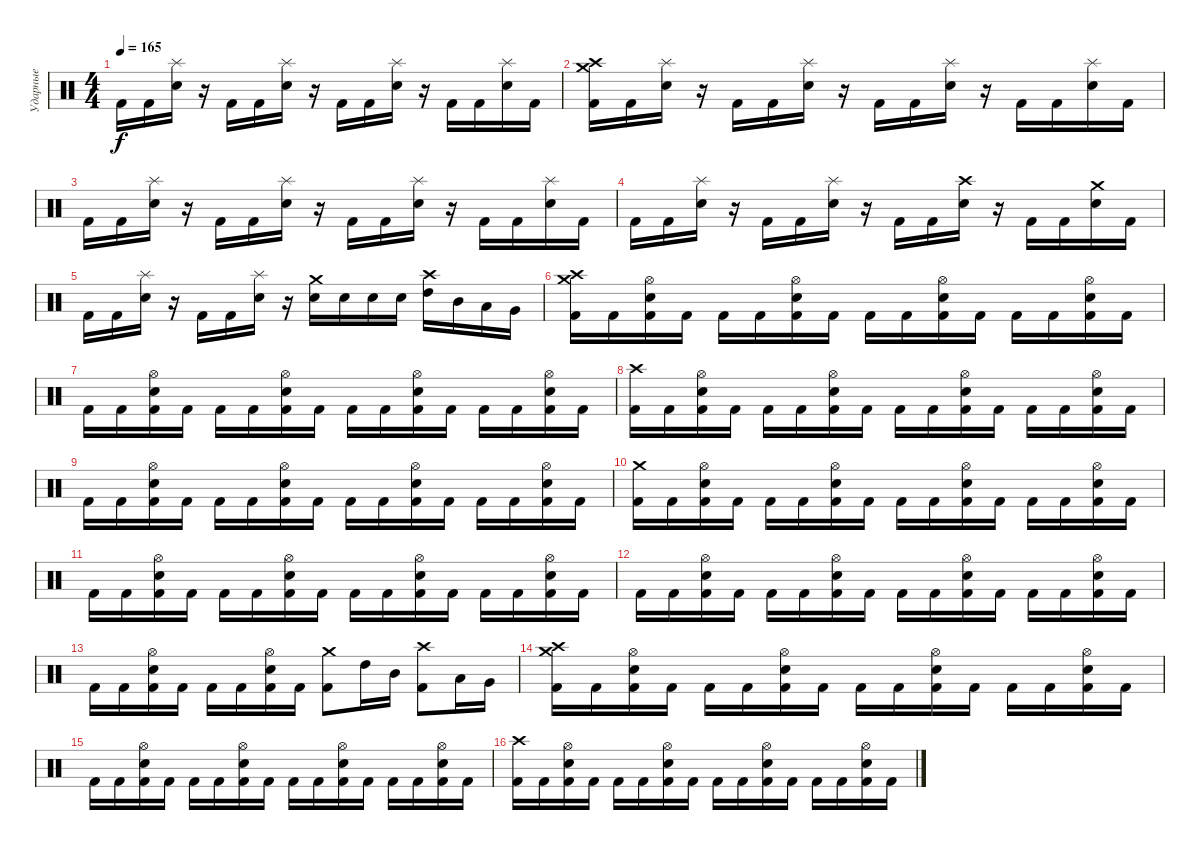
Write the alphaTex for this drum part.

\track ("Ударные" "Ударные") {instrument percussion}
\staff {score}
\articulation defaults
\ts (4 4)
\tempo 165
\clef neutral
\ks c "Kick (hit) 2".16{dy f} "Kick (hit) 2".16
("Splash (hit)" "Electric Snare (hit)").16 r.16 "Kick (hit) 2".16 "Kick (hit) 2".16 ("Splash (hit)" "Electric Snare (hit)").16 r.16 "Kick (hit) 2".16 "Kick (hit) 2".16 ("Splash (hit)" "Electric Snare (hit)").16 r.16 "Kick (hit) 2".16 "Kick (hit) 2".16 ("Splash (hit)" "Electric Snare (hit)").16 "Kick (hit) 2".16 |
("Crash medium (hit)" "Crash high (hit)" "Kick (hit) 2").16 "Kick (hit) 2".16 ("Splash (hit)" "Electric Snare (hit)").16 r.16 "Kick (hit) 2".16 "Kick (hit) 2".16 ("Splash (hit)" "Electric Snare (hit)").16 r.16 "Kick (hit) 2".16 "Kick (hit) 2".16 ("Splash (hit)" "Electric Snare (hit)").16 r.16 "Kick (hit) 2".16 "Kick (hit) 2".16 ("Splash (hit)" "Electric Snare (hit)").16 "Kick (hit) 2".16 |
"Kick (hit) 2".16 "Kick (hit) 2".16 ("Splash (hit)" "Electric Snare (hit)").16 r.16 "Kick (hit) 2".16 "Kick (hit) 2".16 ("Splash (hit)" "Electric Snare (hit)").16 r.16 "Kick (hit) 2".16 "Kick (hit) 2".16 ("Splash (hit)" "Electric Snare (hit)").16 r.16 "Kick (hit) 2".16 "Kick (hit) 2".16 ("Splash (hit)" "Electric Snare (hit)").16 "Kick (hit) 2".16 |
"Kick (hit) 2".16 "Kick (hit) 2".16 ("Splash (hit)" "Electric Snare (hit)").16 r.16 "Kick (hit) 2".16 "Kick (hit) 2".16 ("Splash (hit)" "Electric Snare (hit)").16 r.16 "Kick (hit) 2".16 "Kick (hit) 2".16 ("Crash high (hit)" "Electric Snare (hit)").16 r.16 "Kick (hit) 2".16 "Kick (hit) 2".16 ("Crash medium (hit)" "Electric Snare (hit)").16 "Kick (hit) 2".16 |
"Kick (hit) 2".16 "Kick (hit) 2".16 ("Splash (hit)" "Electric Snare (hit)").16 r.16 "Kick (hit) 2".16 "Kick (hit) 2".16 ("Splash (hit)" "Electric Snare (hit)").16 r.16 ("Crash medium (hit)" "Electric Snare (hit)").16 "Electric Snare (hit)".16 "Electric Snare (hit)".16 "Electric Snare (hit)".16 ("Crash high (hit)" "High Tom (hit)").16 "Mid Tom (hit)".16 "Low Tom (hit)".16 "Very Low Tom (hit)".16 |
("Crash medium (hit)" "Crash high (hit)" "Kick (hit) 2").16 "Kick (hit) 2".16 ("Hi-Hat (open)" "Electric Snare (hit)" "Kick (hit) 2").16 "Kick (hit) 2".16 "Kick (hit) 2".16 "Kick (hit) 2".16 ("Hi-Hat (open)" "Electric Snare (hit)" "Kick (hit) 2").16 "Kick (hit) 2".16 "Kick (hit) 2".16 "Kick (hit) 2".16 ("Hi-Hat (open)" "Electric Snare (hit)" "Kick (hit) 2").16 "Kick (hit) 2".16 "Kick (hit) 2".16 "Kick (hit) 2".16 ("Hi-Hat (open)" "Electric Snare (hit)" "Kick (hit) 2").16 "Kick (hit) 2".16 |
"Kick (hit) 2".16 "Kick (hit) 2".16 ("Hi-Hat (open)" "Electric Snare (hit)" "Kick (hit) 2").16 "Kick (hit) 2".16 "Kick (hit) 2".16 "Kick (hit) 2".16 ("Hi-Hat (open)" "Electric Snare (hit)" "Kick (hit) 2").16 "Kick (hit) 2".16 "Kick (hit) 2".16 "Kick (hit) 2".16 ("Hi-Hat (open)" "Electric Snare (hit)" "Kick (hit) 2").16 "Kick (hit) 2".16 "Kick (hit) 2".16 "Kick (hit) 2".16 ("Hi-Hat (open)" "Electric Snare (hit)" "Kick (hit) 2").16 "Kick (hit) 2".16 |
("Crash high (hit)" "Kick (hit) 2").16 "Kick (hit) 2".16 ("Hi-Hat (open)" "Electric Snare (hit)" "Kick (hit) 2").16 "Kick (hit) 2".16 "Kick (hit) 2".16 "Kick (hit) 2".16 ("Hi-Hat (open)" "Electric Snare (hit)" "Kick (hit) 2").16 "Kick (hit) 2".16 "Kick (hit) 2".16 "Kick (hit) 2".16 ("Hi-Hat (open)" "Electric Snare (hit)" "Kick (hit) 2").16 "Kick (hit) 2".16 "Kick (hit) 2".16 "Kick (hit) 2".16 ("Hi-Hat (open)" "Electric Snare (hit)" "Kick (hit) 2").16 "Kick (hit) 2".16 |
"Kick (hit) 2".16 "Kick (hit) 2".16 ("Hi-Hat (open)" "Electric Snare (hit)" "Kick (hit) 2").16 "Kick (hit) 2".16 "Kick (hit) 2".16 "Kick (hit) 2".16 ("Hi-Hat (open)" "Electric Snare (hit)" "Kick (hit) 2").16 "Kick (hit) 2".16 "Kick (hit) 2".16 "Kick (hit) 2".16 ("Hi-Hat (open)" "Electric Snare (hit)" "Kick (hit) 2").16 "Kick (hit) 2".16 "Kick (hit) 2".16 "Kick (hit) 2".16 ("Hi-Hat (open)" "Electric Snare (hit)" "Kick (hit) 2").16 "Kick (hit) 2".16 |
("Crash medium (hit)" "Kick (hit) 2").16 "Kick (hit) 2".16 ("Hi-Hat (open)" "Electric Snare (hit)" "Kick (hit) 2").16 "Kick (hit) 2".16 "Kick (hit) 2".16 "Kick (hit) 2".16 ("Hi-Hat (open)" "Electric Snare (hit)" "Kick (hit) 2").16 "Kick (hit) 2".16 "Kick (hit) 2".16 "Kick (hit) 2".16 ("Hi-Hat (open)" "Electric Snare (hit)" "Kick (hit) 2").16 "Kick (hit) 2".16 "Kick (hit) 2".16 "Kick (hit) 2".16 ("Hi-Hat (open)" "Electric Snare (hit)" "Kick (hit) 2").16 "Kick (hit) 2".16 |
"Kick (hit) 2".16 "Kick (hit) 2".16 ("Hi-Hat (open)" "Electric Snare (hit)" "Kick (hit) 2").16 "Kick (hit) 2".16 "Kick (hit) 2".16 "Kick (hit) 2".16 ("Hi-Hat (open)" "Electric Snare (hit)" "Kick (hit) 2").16 "Kick (hit) 2".16 "Kick (hit) 2".16 "Kick (hit) 2".16 ("Hi-Hat (open)" "Electric Snare (hit)" "Kick (hit) 2").16 "Kick (hit) 2".16 "Kick (hit) 2".16 "Kick (hit) 2".16 ("Hi-Hat (open)" "Electric Snare (hit)" "Kick (hit) 2").16 "Kick (hit) 2".16 |
"Kick (hit) 2".16 "Kick (hit) 2".16 ("Hi-Hat (open)" "Electric Snare (hit)" "Kick (hit) 2").16 "Kick (hit) 2".16 "Kick (hit) 2".16 "Kick (hit) 2".16 ("Hi-Hat (open)" "Electric Snare (hit)" "Kick (hit) 2").16 "Kick (hit) 2".16 "Kick (hit) 2".16 "Kick (hit) 2".16 ("Hi-Hat (open)" "Electric Snare (hit)" "Kick (hit) 2").16 "Kick (hit) 2".16 "Kick (hit) 2".16 "Kick (hit) 2".16 ("Hi-Hat (open)" "Electric Snare (hit)" "Kick (hit) 2").16 "Kick (hit) 2".16 |
"Kick (hit) 2".16 "Kick (hit) 2".16 ("Hi-Hat (open)" "Electric Snare (hit)" "Kick (hit) 2").16 "Kick (hit) 2".16 "Kick (hit) 2".16 "Kick (hit) 2".16 ("Hi-Hat (open)" "Electric Snare (hit)" "Kick (hit) 2").16 "Kick (hit) 2".16 ("Crash medium (hit)" "Kick (hit) 2").8 "High Tom (hit)".16 "Mid Tom (hit)".16 ("Crash high (hit)" "Kick (hit) 2").8 "Low Tom (hit)".16 "Very Low Tom (hit)".16 |
("Crash medium (hit)" "Crash high (hit)" "Kick (hit) 2").16 "Kick (hit) 2".16 ("Hi-Hat (open)" "Electric Snare (hit)" "Kick (hit) 2").16 "Kick (hit) 2".16 "Kick (hit) 2".16 "Kick (hit) 2".16 ("Hi-Hat (open)" "Electric Snare (hit)" "Kick (hit) 2").16 "Kick (hit) 2".16 "Kick (hit) 2".16 "Kick (hit) 2".16 ("Hi-Hat (open)" "Electric Snare (hit)" "Kick (hit) 2").16 "Kick (hit) 2".16 "Kick (hit) 2".16 "Kick (hit) 2".16 ("Hi-Hat (open)" "Electric Snare (hit)" "Kick (hit) 2").16 "Kick (hit) 2".16 |
"Kick (hit) 2".16 "Kick (hit) 2".16 ("Hi-Hat (open)" "Electric Snare (hit)" "Kick (hit) 2").16 "Kick (hit) 2".16 "Kick (hit) 2".16 "Kick (hit) 2".16 ("Hi-Hat (open)" "Electric Snare (hit)" "Kick (hit) 2").16 "Kick (hit) 2".16 "Kick (hit) 2".16 "Kick (hit) 2".16 ("Hi-Hat (open)" "Electric Snare (hit)" "Kick (hit) 2").16 "Kick (hit) 2".16 "Kick (hit) 2".16 "Kick (hit) 2".16 ("Hi-Hat (open)" "Electric Snare (hit)" "Kick (hit) 2").16 "Kick (hit) 2".16 |
("Crash high (hit)" "Kick (hit) 2").16 "Kick (hit) 2".16 ("Hi-Hat (open)" "Electric Snare (hit)" "Kick (hit) 2").16 "Kick (hit) 2".16 "Kick (hit) 2".16 "Kick (hit) 2".16 ("Hi-Hat (open)" "Electric Snare (hit)" "Kick (hit) 2").16 "Kick (hit) 2".16 "Kick (hit) 2".16 "Kick (hit) 2".16 ("Hi-Hat (open)" "Electric Snare (hit)" "Kick (hit) 2").16 "Kick (hit) 2".16 "Kick (hit) 2".16 "Kick (hit) 2".16 ("Hi-Hat (open)" "Electric Snare (hit)" "Kick (hit) 2").16 "Kick (hit) 2".16
